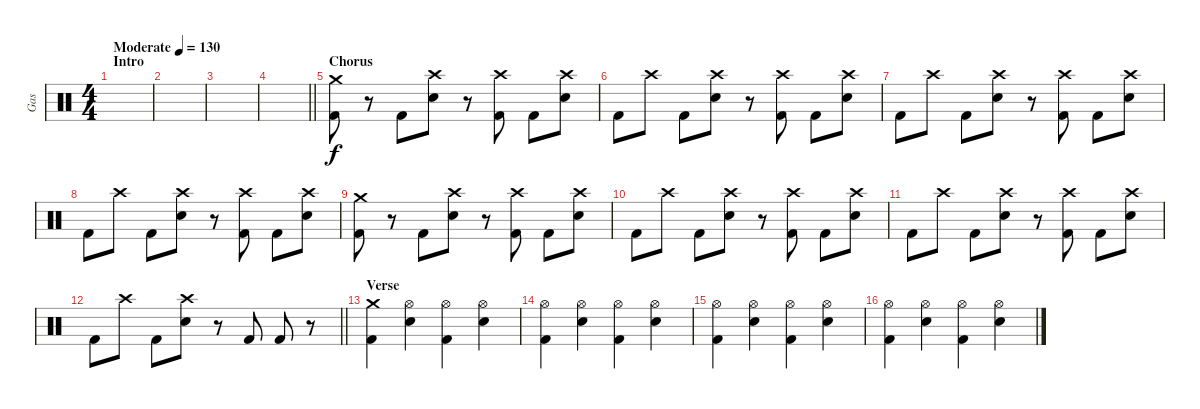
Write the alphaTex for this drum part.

\track ("Gas" "Gas") {instrument percussion}
\staff {score}
\articulation defaults
\ts (4 4)
\section ("" "Intro")
\tempo (130 "Moderate")
\clef neutral
\ks c
|
|
|
\barLineRight lightlight
|
\section ("" "Chorus")
("Crash medium (hit)" "Kick (hit) 2").8 r.8 "Kick (hit) 2".8 ("Crash high (hit)" "Electric Snare (hit)").8 r.8 ("Crash high (hit)" "Kick (hit) 2").8 "Kick (hit) 2".8 ("Crash high (hit)" "Electric Snare (hit)").8 |
"Kick (hit) 2".8 "Crash high (hit)".8 "Kick (hit) 2".8 ("Electric Snare (hit)" "Crash high (hit)").8 r.8 ("Kick (hit) 2" "Crash high (hit)").8 "Kick (hit) 2".8 ("Electric Snare (hit)" "Crash high (hit)").8 |
"Kick (hit) 2".8 "Crash high (hit)".8 "Kick (hit) 2".8 ("Crash high (hit)" "Electric Snare (hit)").8 r.8 ("Crash high (hit)" "Kick (hit) 2").8 "Kick (hit) 2".8 ("Crash high (hit)" "Electric Snare (hit)").8 |
"Kick (hit) 2".8 "Crash high (hit)".8 "Kick (hit) 2".8 ("Electric Snare (hit)" "Crash high (hit)").8 r.8 ("Kick (hit) 2" "Crash high (hit)").8 "Kick (hit) 2".8 ("Electric Snare (hit)" "Crash high (hit)").8 |
("Crash medium (hit)" "Kick (hit) 2").8 r.8 "Kick (hit) 2".8 ("Crash high (hit)" "Electric Snare (hit)").8 r.8 ("Crash high (hit)" "Kick (hit) 2").8 "Kick (hit) 2".8 ("Crash high (hit)" "Electric Snare (hit)").8 |
"Kick (hit) 2".8 "Crash high (hit)".8 "Kick (hit) 2".8 ("Electric Snare (hit)" "Crash high (hit)").8 r.8 ("Kick (hit) 2" "Crash high (hit)").8 "Kick (hit) 2".8 ("Electric Snare (hit)" "Crash high (hit)").8 |
"Kick (hit) 2".8 "Crash high (hit)".8 "Kick (hit) 2".8 ("Crash high (hit)" "Electric Snare (hit)").8 r.8 ("Crash high (hit)" "Kick (hit) 2").8 "Kick (hit) 2".8 ("Crash high (hit)" "Electric Snare (hit)").8 |
\barLineRight lightlight "Kick (hit) 2".8 "Crash high (hit)".8 "Kick (hit) 2".8
("Electric Snare (hit)" "Crash high (hit)").8 r.8 "Kick (hit) 2".8 "Kick (hit) 2".8 r.8 |
\section ("" "Verse")
("Kick (hit) 2" "Crash medium (hit)").4 ("Electric Snare (hit)" "Hi-Hat (open)").4 ("Kick (hit) 2" "Hi-Hat (open)").4 ("Electric Snare (hit)" "Hi-Hat (open)").4 |
("Kick (hit) 2" "Hi-Hat (open)").4 ("Electric Snare (hit)" "Hi-Hat (open)").4 ("Kick (hit) 2" "Hi-Hat (open)").4 ("Electric Snare (hit)" "Hi-Hat (open)").4 |
("Kick (hit) 2" "Hi-Hat (open)").4 ("Electric Snare (hit)" "Hi-Hat (open)").4 ("Kick (hit) 2" "Hi-Hat (open)").4 ("Electric Snare (hit)" "Hi-Hat (open)").4 |
("Kick (hit) 2" "Hi-Hat (open)").4 ("Electric Snare (hit)" "Hi-Hat (open)").4 ("Kick (hit) 2" "Hi-Hat (open)").4 ("Electric Snare (hit)" "Hi-Hat (open)").4
